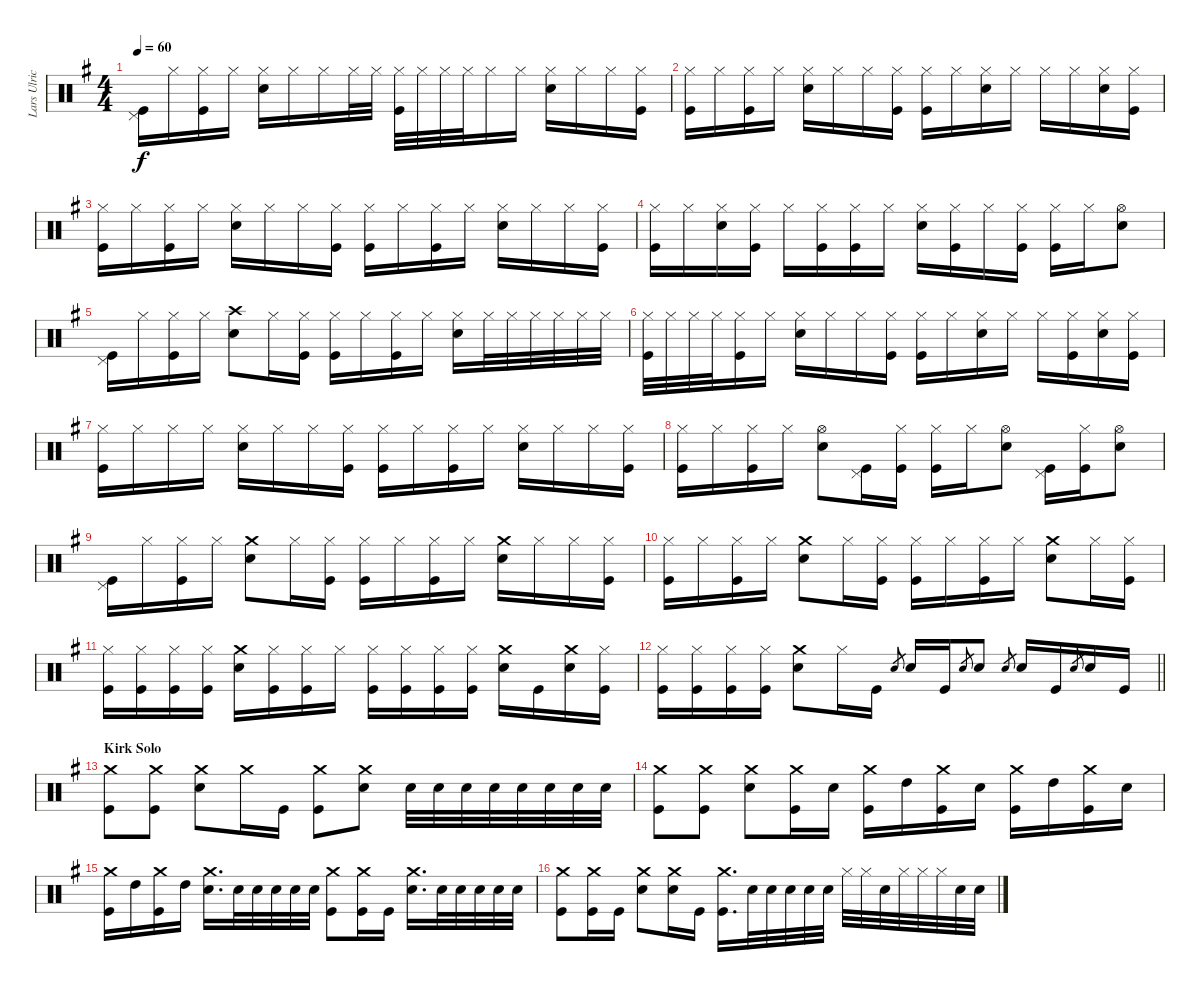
\track ("Lars Ulrich [Drums]" "Lars Ulric") {instrument percussion}
\staff {score}
\articulation defaults
\ts (4 4)
\tempo 60
\clef neutral
\ks g
("Kick (hit)" "Pedal Hi-Hat (hit)").16{dy f} "Hi-Hat (closed)".16 ("Kick (hit)" "Hi-Hat (closed)").16 "Hi-Hat (closed)".16 ("Electric Snare (hit)" "Hi-Hat (closed)").16 "Hi-Hat (closed)".16 "Hi-Hat (closed)".16 "Hi-Hat (closed)".32 "Hi-Hat (closed)".32 ("Kick (hit)" "Hi-Hat (closed)").32 "Hi-Hat (closed)".32 "Hi-Hat (closed)".32 "Hi-Hat (closed)".32 "Hi-Hat (closed)".16 "Hi-Hat (closed)".16 ("Electric Snare (hit)" "Hi-Hat (closed)").16 "Hi-Hat (closed)".16 "Hi-Hat (closed)".16 ("Kick (hit)" "Hi-Hat (closed)").16 |
("Kick (hit)" "Hi-Hat (closed)").16 "Hi-Hat (closed)".16 ("Kick (hit)" "Hi-Hat (closed)").16 "Hi-Hat (closed)".16 ("Electric Snare (hit)" "Hi-Hat (closed)").16 "Hi-Hat (closed)".16 "Hi-Hat (closed)".16 ("Kick (hit)" "Hi-Hat (closed)").16 ("Kick (hit)" "Hi-Hat (closed)").16 "Hi-Hat (closed)".16 ("Electric Snare (hit)" "Hi-Hat (closed)").16 "Hi-Hat (closed)".16 "Hi-Hat (closed)".16 "Hi-Hat (closed)".16 ("Electric Snare (hit)" "Hi-Hat (closed)").16 ("Kick (hit)" "Hi-Hat (closed)").16 |
("Kick (hit)" "Hi-Hat (closed)").16 "Hi-Hat (closed)".16 ("Kick (hit)" "Hi-Hat (closed)").16 "Hi-Hat (closed)".16 ("Electric Snare (hit)" "Hi-Hat (closed)").16 "Hi-Hat (closed)".16 "Hi-Hat (closed)".16 ("Kick (hit)" "Hi-Hat (closed)").16 ("Kick (hit)" "Hi-Hat (closed)").16 "Hi-Hat (closed)".16 ("Kick (hit)" "Hi-Hat (closed)").16 "Hi-Hat (closed)".16 ("Electric Snare (hit)" "Hi-Hat (closed)").16 "Hi-Hat (closed)".16 "Hi-Hat (closed)".16 ("Kick (hit)" "Hi-Hat (closed)").16 |
("Kick (hit)" "Hi-Hat (closed)").16 "Hi-Hat (closed)".16 ("Electric Snare (hit)" "Hi-Hat (closed)").16 ("Kick (hit)" "Hi-Hat (closed)").16 "Hi-Hat (closed)".16 ("Kick (hit)" "Hi-Hat (closed)").16 ("Kick (hit)" "Hi-Hat (closed)").16 "Hi-Hat (closed)".16 ("Electric Snare (hit)" "Hi-Hat (closed)").16 ("Kick (hit)" "Hi-Hat (closed)").16 "Hi-Hat (closed)".16 ("Kick (hit)" "Hi-Hat (closed)").16 ("Kick (hit)" "Hi-Hat (closed)").16 "Hi-Hat (closed)".16 ("Electric Snare (hit)" "Hi-Hat (open)").8 |
("Kick (hit)" "Pedal Hi-Hat (hit)").16 "Hi-Hat (closed)".16 ("Kick (hit)" "Hi-Hat (closed)").16 "Hi-Hat (closed)".16 ("Electric Snare (hit)" "Crash high (hit)").8 "Hi-Hat (closed)".16 ("Kick (hit)" "Hi-Hat (closed)").16 ("Kick (hit)" "Hi-Hat (closed)").16 "Hi-Hat (closed)".16 ("Kick (hit)" "Hi-Hat (closed)").16 "Hi-Hat (closed)".16 ("Electric Snare (hit)" "Hi-Hat (closed)").16 "Hi-Hat (closed)".32 "Hi-Hat (closed)".32 "Hi-Hat (closed)".32 "Hi-Hat (closed)".32 "Hi-Hat (closed)".32 "Hi-Hat (closed)".32 |
("Kick (hit)" "Hi-Hat (closed)").32 "Hi-Hat (closed)".32 "Hi-Hat (closed)".32 "Hi-Hat (closed)".32 ("Kick (hit)" "Hi-Hat (closed)").16 "Hi-Hat (closed)".16 ("Electric Snare (hit)" "Hi-Hat (closed)").16 "Hi-Hat (closed)".16 "Hi-Hat (closed)".16 ("Kick (hit)" "Hi-Hat (closed)").16 ("Kick (hit)" "Hi-Hat (closed)").16 "Hi-Hat (closed)".16 ("Electric Snare (hit)" "Hi-Hat (closed)").16 "Hi-Hat (closed)".16 "Hi-Hat (closed)".16 ("Kick (hit)" "Hi-Hat (closed)").16 ("Electric Snare (hit)" "Hi-Hat (closed)").16 ("Kick (hit)" "Hi-Hat (closed)").16 |
("Kick (hit)" "Hi-Hat (closed)").16 "Hi-Hat (closed)".16 "Hi-Hat (closed)".16 "Hi-Hat (closed)".16 ("Electric Snare (hit)" "Hi-Hat (closed)").16 "Hi-Hat (closed)".16 "Hi-Hat (closed)".16 ("Kick (hit)" "Hi-Hat (closed)").16 ("Kick (hit)" "Hi-Hat (closed)").16 "Hi-Hat (closed)".16 ("Kick (hit)" "Hi-Hat (closed)").16 "Hi-Hat (closed)".16 ("Electric Snare (hit)" "Hi-Hat (closed)").16 "Hi-Hat (closed)".16 "Hi-Hat (closed)".16 ("Kick (hit)" "Hi-Hat (closed)").16 |
("Kick (hit)" "Hi-Hat (closed)").16 "Hi-Hat (closed)".16 ("Kick (hit)" "Hi-Hat (closed)").16 "Hi-Hat (closed)".16 ("Electric Snare (hit)" "Hi-Hat (open)").8 ("Kick (hit)" "Pedal Hi-Hat (hit)").16 ("Kick (hit)" "Hi-Hat (closed)").16 ("Kick (hit)" "Hi-Hat (closed)").16 "Hi-Hat (closed)".16 ("Electric Snare (hit)" "Hi-Hat (open)").8 ("Kick (hit)" "Pedal Hi-Hat (hit)").16 ("Kick (hit)" "Hi-Hat (closed)").16 ("Electric Snare (hit)" "Hi-Hat (open)").8 |
("Kick (hit)" "Pedal Hi-Hat (hit)").16 "Hi-Hat (closed)".16 ("Kick (hit)" "Hi-Hat (closed)").16 "Hi-Hat (closed)".16 ("Electric Snare (hit)" "Crash medium (hit)").8 "Hi-Hat (closed)".16 ("Kick (hit)" "Hi-Hat (closed)").16 ("Kick (hit)" "Hi-Hat (closed)").16 "Hi-Hat (closed)".16 ("Kick (hit)" "Hi-Hat (closed)").16 "Hi-Hat (closed)".16 ("Electric Snare (hit)" "Crash medium (hit)").16 "Hi-Hat (closed)".16 "Hi-Hat (closed)".16 ("Kick (hit)" "Hi-Hat (closed)").16 |
("Kick (hit)" "Hi-Hat (closed)").16 "Hi-Hat (closed)".16 ("Kick (hit)" "Hi-Hat (closed)").16 "Hi-Hat (closed)".16 ("Electric Snare (hit)" "Crash medium (hit)").8 "Hi-Hat (closed)".16 ("Kick (hit)" "Hi-Hat (closed)").16 ("Kick (hit)" "Hi-Hat (closed)").16 "Hi-Hat (closed)".16 ("Kick (hit)" "Hi-Hat (closed)").16 "Hi-Hat (closed)".16 ("Electric Snare (hit)" "Crash medium (hit)").8 "Hi-Hat (closed)".16 ("Kick (hit)" "Hi-Hat (closed)").16 |
("Kick (hit)" "Hi-Hat (closed)").16 ("Kick (hit)" "Hi-Hat (closed)").16 ("Kick (hit)" "Hi-Hat (closed)").16 ("Kick (hit)" "Hi-Hat (closed)").16 ("Electric Snare (hit)" "Crash medium (hit)").16 ("Kick (hit)" "Hi-Hat (closed)").16 ("Kick (hit)" "Hi-Hat (closed)").16 "Hi-Hat (closed)".16 ("Kick (hit)" "Hi-Hat (closed)").16 ("Kick (hit)" "Hi-Hat (closed)").16 ("Kick (hit)" "Hi-Hat (closed)").16 ("Kick (hit)" "Hi-Hat (closed)").16 ("Electric Snare (hit)" "Crash medium (hit)").16 "Kick (hit)".16 ("Electric Snare (hit)" "Crash medium (hit)").16 ("Kick (hit)" "Hi-Hat (closed)").16 |
\barLineRight lightlight
("Kick (hit)" "Hi-Hat (closed)").16 ("Kick (hit)" "Hi-Hat (closed)").16 ("Kick (hit)" "Hi-Hat (closed)").16 ("Kick (hit)" "Hi-Hat (closed)").16 ("Electric Snare (hit)" "Crash medium (hit)").8 "Hi-Hat (closed)".16 "Kick (hit)".16 "Electric Snare (hit)".8{gr} "Electric Snare (hit)".16 "Kick (hit)".16 "Electric Snare (hit)".8{gr} "Electric Snare (hit)".8 "Electric Snare (hit)".8{gr} "Electric Snare (hit)".16 "Kick (hit)".16 "Electric Snare (hit)".8{gr} "Electric Snare (hit)".16 "Kick (hit)".16 |
\section ("" "Kirk Solo")
("Kick (hit)" "Crash medium (hit)").8 ("Kick (hit)" "Crash medium (hit)").8 ("Electric Snare (hit)" "Crash medium (hit)").8 "Crash medium (hit)".16 "Kick (hit)".16 ("Kick (hit)" "Crash medium (hit)").8 ("Electric Snare (hit)" "Crash medium (hit)").8 "Electric Snare (hit)".32 "Electric Snare (hit)".32 "Electric Snare (hit)".32 "Electric Snare (hit)".32 "Electric Snare (hit)".32 "Electric Snare (hit)".32 "Electric Snare (hit)".32 "Electric Snare (hit)".32 |
("Kick (hit)" "Crash medium (hit)").8 ("Kick (hit)" "Crash medium (hit)").8 ("Electric Snare (hit)" "Crash medium (hit)").8 ("Kick (hit)" "Crash medium (hit)").16 "Electric Snare (hit)".16 ("Kick (hit)" "Crash medium (hit)").16 "High Tom (hit)".16 ("Kick (hit)" "Crash medium (hit)").16 "Electric Snare (hit)".16 ("Kick (hit)" "Crash medium (hit)").16 "High Tom (hit)".16 ("Kick (hit)" "Crash medium (hit)").16 "Electric Snare (hit)".16 |
("Kick (hit)" "Crash medium (hit)").16 "High Tom (hit)".16 ("Kick (hit)" "Crash medium (hit)").16 "High Tom (hit)".16 ("Electric Snare (hit)" "Crash medium (hit)").16{d} "Electric Snare (hit)".32 "Electric Snare (hit)".32 "Electric Snare (hit)".32 "Electric Snare (hit)".32 "Electric Snare (hit)".32 ("Kick (hit)" "Crash medium (hit)").8 ("Kick (hit)" "Crash medium (hit)").16 "Kick (hit)".16 ("Electric Snare (hit)" "Crash medium (hit)").16{d} "Electric Snare (hit)".32 "Electric Snare (hit)".32 "Electric Snare (hit)".32 "Electric Snare (hit)".32 "Electric Snare (hit)".32 |
("Kick (hit)" "Crash medium (hit)").8 ("Kick (hit)" "Crash medium (hit)").16 "Kick (hit)".16 ("Electric Snare (hit)" "Crash medium (hit)").8 ("Electric Snare (hit)" "Crash medium (hit)").16 "Kick (hit)".16 ("Kick (hit)" "Crash medium (hit)").16{d} "Electric Snare (hit)".32 "Electric Snare (hit)".32 "Electric Snare (hit)".32 "Electric Snare (hit)".32 "Electric Snare (hit)".32 "Hi-Hat (closed)".32 "Hi-Hat (closed)".32 "Electric Snare (hit)".32 "Hi-Hat (closed)".32 "Hi-Hat (closed)".32 "Hi-Hat (closed)".32 "Electric Snare (hit)".32 "Electric Snare (hit)".32
